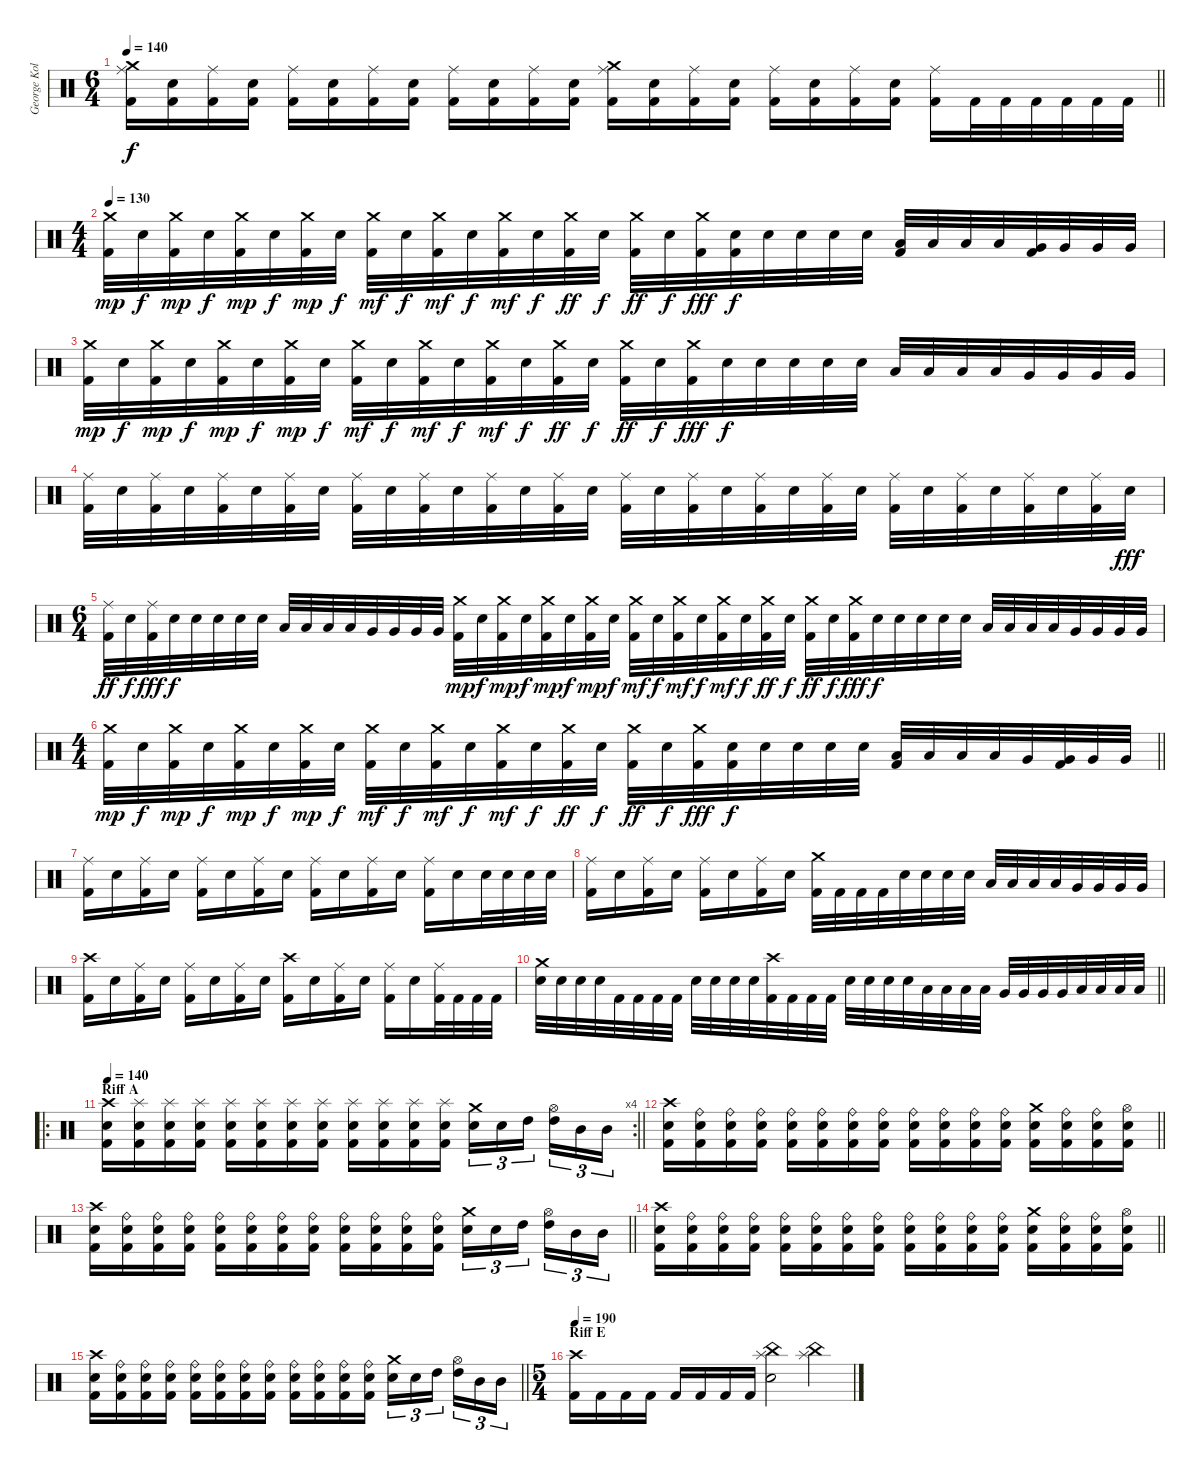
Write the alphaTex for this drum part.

\track ("George Kollias" "George Kol") {instrument percussion}
\staff {score}
\articulation defaults
\ts (6 4)
\tempo 140
\clef neutral
\barLineRight lightlight
\ks c
("Crash medium (hit)" "Ride (middle)" "Kick (hit) 2").16{dy f} ("Electric Snare (hit)" "Kick (hit) 2").16 ("Ride (middle)" "Kick (hit) 2").16 ("Electric Snare (hit)" "Kick (hit) 2").16 ("Ride (middle)" "Kick (hit) 2").16 ("Electric Snare (hit)" "Kick (hit) 2").16 ("Ride (middle)" "Kick (hit) 2").16 ("Electric Snare (hit)" "Kick (hit) 2").16 ("Ride (middle)" "Kick (hit) 2").16 ("Electric Snare (hit)" "Kick (hit) 2").16 ("Ride (middle)" "Kick (hit) 2").16 ("Electric Snare (hit)" "Kick (hit) 2").16 ("Crash medium (hit)" "Ride (middle)" "Kick (hit) 2").16 ("Electric Snare (hit)" "Kick (hit) 2").16 ("Ride (middle)" "Kick (hit) 2").16 ("Electric Snare (hit)" "Kick (hit) 2").16 ("Ride (middle)" "Kick (hit) 2").16 ("Electric Snare (hit)" "Kick (hit) 2").16 ("Ride (middle)" "Kick (hit) 2").16 ("Electric Snare (hit)" "Kick (hit) 2").16 ("Ride (middle)" "Kick (hit) 2").16 "Kick (hit) 2".32 "Kick (hit) 2".32 "Kick (hit) 2".32 "Kick (hit) 2".32 "Kick (hit) 2".32 "Kick (hit) 2".32 |
\ts (4 4)
\tempo 130
("Crash medium (hit)" "Kick (hit) 2").32{dy mp} "Electric Snare (hit)".32{dy f} ("Crash medium (hit)" "Kick (hit) 2").32{dy mp} "Electric Snare (hit)".32{dy f} ("Crash medium (hit)" "Kick (hit) 2").32{dy mp} "Electric Snare (hit)".32{dy f} ("Crash medium (hit)" "Kick (hit) 2").32{dy mp} "Electric Snare (hit)".32{dy f} ("Crash medium (hit)" "Kick (hit) 2").32{dy mf} "Electric Snare (hit)".32{dy f} ("Crash medium (hit)" "Kick (hit) 2").32{dy mf} "Electric Snare (hit)".32{dy f} ("Crash medium (hit)" "Kick (hit) 2").32{dy mf} "Electric Snare (hit)".32{dy f} ("Crash medium (hit)" "Kick (hit) 2").32{dy ff} "Electric Snare (hit)".32{dy f} ("Crash medium (hit)" "Kick (hit) 2").32{dy ff} "Electric Snare (hit)".32{dy f} ("Crash medium (hit)" "Kick (hit) 2").32{dy fff} ("Electric Snare (hit)" "Kick (hit) 2").32{dy f} "Electric Snare (hit)".32 "Electric Snare (hit)".32 "Electric Snare (hit)".32 "Electric Snare (hit)".32 ("Low Tom (hit)" "Kick (hit) 2").32 "Low Tom (hit)".32 "Low Tom (hit)".32 "Low Tom (hit)".32 ("Very Low Tom (hit)" "Kick (hit) 2").32 "Very Low Tom (hit)".32 "Very Low Tom (hit)".32 "Very Low Tom (hit)".32 |
("Crash medium (hit)" "Kick (hit) 2").32{dy mp} "Electric Snare (hit)".32{dy f} ("Crash medium (hit)" "Kick (hit) 2").32{dy mp} "Electric Snare (hit)".32{dy f} ("Crash medium (hit)" "Kick (hit) 2").32{dy mp} "Electric Snare (hit)".32{dy f} ("Crash medium (hit)" "Kick (hit) 2").32{dy mp} "Electric Snare (hit)".32{dy f} ("Crash medium (hit)" "Kick (hit) 2").32{dy mf} "Electric Snare (hit)".32{dy f} ("Crash medium (hit)" "Kick (hit) 2").32{dy mf} "Electric Snare (hit)".32{dy f} ("Crash medium (hit)" "Kick (hit) 2").32{dy mf} "Electric Snare (hit)".32{dy f} ("Crash medium (hit)" "Kick (hit) 2").32{dy ff} "Electric Snare (hit)".32{dy f} ("Crash medium (hit)" "Kick (hit) 2").32{dy ff} "Electric Snare (hit)".32{dy f} ("Crash medium (hit)" "Kick (hit) 2").32{dy fff} "Electric Snare (hit)".32{dy f} "Electric Snare (hit)".32 "Electric Snare (hit)".32 "Electric Snare (hit)".32 "Electric Snare (hit)".32 "Low Tom (hit)".32 "Low Tom (hit)".32 "Low Tom (hit)".32 "Low Tom (hit)".32 "Very Low Tom (hit)".32 "Very Low Tom (hit)".32 "Very Low Tom (hit)".32 "Very Low Tom (hit)".32 |
("Ride (middle)" "Kick (hit) 2").32 "Electric Snare (hit)".32 ("Ride (middle)" "Kick (hit) 2").32 "Electric Snare (hit)".32 ("Ride (middle)" "Kick (hit) 2").32 "Electric Snare (hit)".32 ("Ride (middle)" "Kick (hit) 2").32 "Electric Snare (hit)".32 ("Ride (middle)" "Kick (hit) 2").32 "Electric Snare (hit)".32 ("Ride (middle)" "Kick (hit) 2").32 "Electric Snare (hit)".32 ("Ride (middle)" "Kick (hit) 2").32 "Electric Snare (hit)".32 ("Ride (middle)" "Kick (hit) 2").32 "Electric Snare (hit)".32 ("Ride (middle)" "Kick (hit) 2").32 "Electric Snare (hit)".32 ("Ride (middle)" "Kick (hit) 2").32 "Electric Snare (hit)".32 ("Ride (middle)" "Kick (hit) 2").32 "Electric Snare (hit)".32 ("Ride (middle)" "Kick (hit) 2").32 "Electric Snare (hit)".32 ("Ride (middle)" "Kick (hit) 2").32 "Electric Snare (hit)".32 ("Ride (middle)" "Kick (hit) 2").32 "Electric Snare (hit)".32 ("Ride (middle)" "Kick (hit) 2").32 "Electric Snare (hit)".32 ("Ride (middle)" "Kick (hit) 2").32 "Electric Snare (hit)".32{dy fff} |
\ts (6 4)
("Ride (middle)" "Kick (hit) 2").32{dy ff} "Electric Snare (hit)".32{dy f} ("Ride (middle)" "Kick (hit) 2").32{dy fff} "Electric Snare (hit)".32{dy f} "Electric Snare (hit)".32 "Electric Snare (hit)".32 "Electric Snare (hit)".32 "Electric Snare (hit)".32 "Low Tom (hit)".32 "Low Tom (hit)".32 "Low Tom (hit)".32 "Low Tom (hit)".32 "Very Low Tom (hit)".32 "Very Low Tom (hit)".32 "Very Low Tom (hit)".32 "Very Low Tom (hit)".32 ("Crash medium (hit)" "Kick (hit) 2").32{dy mp} "Electric Snare (hit)".32{dy f} ("Crash medium (hit)" "Kick (hit) 2").32{dy mp} "Electric Snare (hit)".32{dy f} ("Crash medium (hit)" "Kick (hit) 2").32{dy mp} "Electric Snare (hit)".32{dy f} ("Crash medium (hit)" "Kick (hit) 2").32{dy mp} "Electric Snare (hit)".32{dy f} ("Crash medium (hit)" "Kick (hit) 2").32{dy mf} "Electric Snare (hit)".32{dy f} ("Crash medium (hit)" "Kick (hit) 2").32{dy mf} "Electric Snare (hit)".32{dy f} ("Crash medium (hit)" "Kick (hit) 2").32{dy mf} "Electric Snare (hit)".32{dy f} ("Crash medium (hit)" "Kick (hit) 2").32{dy ff} "Electric Snare (hit)".32{dy f} ("Crash medium (hit)" "Kick (hit) 2").32{dy ff} "Electric Snare (hit)".32{dy f} ("Crash medium (hit)" "Kick (hit) 2").32{dy fff} "Electric Snare (hit)".32{dy f} "Electric Snare (hit)".32 "Electric Snare (hit)".32 "Electric Snare (hit)".32 "Electric Snare (hit)".32 "Low Tom (hit)".32 "Low Tom (hit)".32 "Low Tom (hit)".32 "Low Tom (hit)".32 "Very Low Tom (hit)".32 "Very Low Tom (hit)".32 "Very Low Tom (hit)".32 "Very Low Tom (hit)".32 |
\ts (4 4)
\barLineRight lightlight
("Crash medium (hit)" "Kick (hit) 2").32{dy mp} "Electric Snare (hit)".32{dy f} ("Crash medium (hit)" "Kick (hit) 2").32{dy mp} "Electric Snare (hit)".32{dy f} ("Crash medium (hit)" "Kick (hit) 2").32{dy mp} "Electric Snare (hit)".32{dy f} ("Crash medium (hit)" "Kick (hit) 2").32{dy mp} "Electric Snare (hit)".32{dy f} ("Crash medium (hit)" "Kick (hit) 2").32{dy mf} "Electric Snare (hit)".32{dy f} ("Crash medium (hit)" "Kick (hit) 2").32{dy mf} "Electric Snare (hit)".32{dy f} ("Crash medium (hit)" "Kick (hit) 2").32{dy mf} "Electric Snare (hit)".32{dy f} ("Crash medium (hit)" "Kick (hit) 2").32{dy ff} "Electric Snare (hit)".32{dy f} ("Crash medium (hit)" "Kick (hit) 2").32{dy ff} "Electric Snare (hit)".32{dy f} ("Crash medium (hit)" "Kick (hit) 2").32{dy fff} ("Electric Snare (hit)" "Kick (hit) 2").32{dy f} "Electric Snare (hit)".32 "Electric Snare (hit)".32 "Electric Snare (hit)".32 "Electric Snare (hit)".32 ("Low Tom (hit)" "Kick (hit) 2").32 "Low Tom (hit)".32 "Low Tom (hit)".32 "Low Tom (hit)".32 "Very Low Tom (hit)".32 ("Very Low Tom (hit)" "Kick (hit) 2").32 "Very Low Tom (hit)".32 "Very Low Tom (hit)".32 |
("Ride (middle)" "Kick (hit) 2").16 "Electric Snare (hit)".16 ("Ride (middle)" "Kick (hit) 2").16 "Electric Snare (hit)".16 ("Ride (middle)" "Kick (hit) 2").16 "Electric Snare (hit)".16 ("Ride (middle)" "Kick (hit) 2").16 "Electric Snare (hit)".16 ("Ride (middle)" "Kick (hit) 2").16 "Electric Snare (hit)".16 ("Ride (middle)" "Kick (hit) 2").16 "Electric Snare (hit)".16 ("Ride (middle)" "Kick (hit) 2").16 "Electric Snare (hit)".16 "Electric Snare (hit)".32 "Electric Snare (hit)".32 "Electric Snare (hit)".32 "Electric Snare (hit)".32 |
("Ride (middle)" "Kick (hit) 2").16 "Electric Snare (hit)".16 ("Ride (middle)" "Kick (hit) 2").16 "Electric Snare (hit)".16 ("Ride (middle)" "Kick (hit) 2").16 "Electric Snare (hit)".16 ("Ride (middle)" "Kick (hit) 2").16 "Electric Snare (hit)".16 ("Crash medium (hit)" "Kick (hit) 2").32 "Kick (hit) 2".32 "Kick (hit) 2".32 "Kick (hit) 2".32 "Electric Snare (hit)".32 "Electric Snare (hit)".32 "Electric Snare (hit)".32 "Electric Snare (hit)".32 "Low Tom (hit)".32 "Low Tom (hit)".32 "Low Tom (hit)".32 "Low Tom (hit)".32 "Very Low Tom (hit)".32 "Very Low Tom (hit)".32 "Very Low Tom (hit)".32 "Very Low Tom (hit)".32 |
("Crash high (hit)" "Kick (hit) 2").16 "Electric Snare (hit)".16 ("Ride (middle)" "Kick (hit) 2").16 "Electric Snare (hit)".16 ("Ride (middle)" "Kick (hit) 2").16 "Electric Snare (hit)".16 ("Ride (middle)" "Kick (hit) 2").16 "Electric Snare (hit)".16 ("Crash high (hit)" "Kick (hit) 2").16 "Electric Snare (hit)".16 ("Ride (middle)" "Kick (hit) 2").16 "Electric Snare (hit)".16 ("Ride (middle)" "Kick (hit) 2").16 "Electric Snare (hit)".16 ("Ride (middle)" "Kick (hit) 2").32 "Kick (hit) 2".32 "Kick (hit) 2".32 "Kick (hit) 2".32 |
\barLineRight lightlight
("Crash medium (hit)" "Electric Snare (hit)").32 "Electric Snare (hit)".32 "Electric Snare (hit)".32 "Electric Snare (hit)".32 "Kick (hit) 2".32 "Kick (hit) 2".32 "Kick (hit) 2".32 "Kick (hit) 2".32 "Electric Snare (hit)".32 "Electric Snare (hit)".32 "Electric Snare (hit)".32 "Electric Snare (hit)".32 ("Crash high (hit)" "Kick (hit) 2").32 "Kick (hit) 2".32 "Kick (hit) 2".32 "Kick (hit) 2".32 "Electric Snare (hit)".32 "Electric Snare (hit)".32 "Electric Snare (hit)".32 "Electric Snare (hit)".32 "Low Tom (hit)".32 "Low Tom (hit)".32 "Low Tom (hit)".32 "Low Tom (hit)".32 "Very Low Tom (hit)".32 "Very Low Tom (hit)".32 "Very Low Tom (hit)".32 "Very Low Tom (hit)".32 "Low Floor Tom (hit)".32 "Low Floor Tom (hit)".32 "Low Floor Tom (hit)".32 "Low Floor Tom (hit)".32 |
\ro
\rc 4
\section ("" "Riff A")
\tempo 140
\barLineRight lightlight
("Crash high (hit)" "Electric Snare (hit)" "Kick (hit) 2").16 ("Splash (hit)" "Electric Snare (hit)" "Kick (hit) 2").16 ("Splash (hit)" "Electric Snare (hit)" "Kick (hit) 2").16 ("Splash (hit)" "Electric Snare (hit)" "Kick (hit) 2").16 ("Splash (hit)" "Electric Snare (hit)" "Kick (hit) 2").16 ("Splash (hit)" "Electric Snare (hit)" "Kick (hit) 2").16 ("Splash (hit)" "Electric Snare (hit)" "Kick (hit) 2").16 ("Splash (hit)" "Electric Snare (hit)" "Kick (hit) 2").16 ("Splash (hit)" "Electric Snare (hit)" "Kick (hit) 2").16 ("Splash (hit)" "Electric Snare (hit)" "Kick (hit) 2").16 ("Splash (hit)" "Electric Snare (hit)" "Kick (hit) 2").16 ("Splash (hit)" "Electric Snare (hit)" "Kick (hit) 2").16 ("Crash medium (hit)" "Electric Snare (hit)").16{tu (3 2)} "Electric Snare (hit)".16{tu (3 2)} "High Tom (hit)".16{tu (3 2) beam splitsecondary} ("Hi-Hat (open)" "High Tom (hit)").16{tu (3 2)} "Mid Tom (hit)".16{tu (3 2)} "Mid Tom (hit)".16{tu (3 2)} |
\barLineRight lightlight
("Crash high (hit)" "Electric Snare (hit)" "Kick (hit) 2").16 ("Ride (bell)" "Electric Snare (hit)" "Kick (hit) 2").16 ("Ride (bell)" "Electric Snare (hit)" "Kick (hit) 2").16 ("Ride (bell)" "Electric Snare (hit)" "Kick (hit) 2").16 ("Ride (bell)" "Electric Snare (hit)" "Kick (hit) 2").16 ("Ride (bell)" "Electric Snare (hit)" "Kick (hit) 2").16 ("Ride (bell)" "Electric Snare (hit)" "Kick (hit) 2").16 ("Ride (bell)" "Electric Snare (hit)" "Kick (hit) 2").16 ("Ride (bell)" "Electric Snare (hit)" "Kick (hit) 2").16 ("Ride (bell)" "Electric Snare (hit)" "Kick (hit) 2").16 ("Ride (bell)" "Electric Snare (hit)" "Kick (hit) 2").16 ("Ride (bell)" "Electric Snare (hit)" "Kick (hit) 2").16 ("Crash medium (hit)" "Electric Snare (hit)" "Kick (hit) 2").16 ("Ride (bell)" "Electric Snare (hit)" "Kick (hit) 2").16 ("Ride (bell)" "Electric Snare (hit)" "Kick (hit) 2").16 ("Hi-Hat (open)" "Electric Snare (hit)" "Kick (hit) 2").16 |
\barLineRight lightlight
("Crash high (hit)" "Electric Snare (hit)" "Kick (hit) 2").16 ("Ride (bell)" "Electric Snare (hit)" "Kick (hit) 2").16 ("Ride (bell)" "Electric Snare (hit)" "Kick (hit) 2").16 ("Ride (bell)" "Electric Snare (hit)" "Kick (hit) 2").16 ("Ride (bell)" "Electric Snare (hit)" "Kick (hit) 2").16 ("Ride (bell)" "Electric Snare (hit)" "Kick (hit) 2").16 ("Ride (bell)" "Electric Snare (hit)" "Kick (hit) 2").16 ("Ride (bell)" "Electric Snare (hit)" "Kick (hit) 2").16 ("Ride (bell)" "Electric Snare (hit)" "Kick (hit) 2").16 ("Ride (bell)" "Electric Snare (hit)" "Kick (hit) 2").16 ("Ride (bell)" "Electric Snare (hit)" "Kick (hit) 2").16 ("Ride (bell)" "Electric Snare (hit)" "Kick (hit) 2").16 ("Crash medium (hit)" "Electric Snare (hit)").16{tu (3 2)} "Electric Snare (hit)".16{tu (3 2)} "High Tom (hit)".16{tu (3 2) beam splitsecondary} ("Hi-Hat (open)" "High Tom (hit)").16{tu (3 2)} "Mid Tom (hit)".16{tu (3 2)} "Mid Tom (hit)".16{tu (3 2)} |
\barLineRight lightlight
("Crash high (hit)" "Electric Snare (hit)" "Kick (hit) 2").16 ("Ride (bell)" "Electric Snare (hit)" "Kick (hit) 2").16 ("Ride (bell)" "Electric Snare (hit)" "Kick (hit) 2").16 ("Ride (bell)" "Electric Snare (hit)" "Kick (hit) 2").16 ("Ride (bell)" "Electric Snare (hit)" "Kick (hit) 2").16 ("Ride (bell)" "Electric Snare (hit)" "Kick (hit) 2").16 ("Ride (bell)" "Electric Snare (hit)" "Kick (hit) 2").16 ("Ride (bell)" "Electric Snare (hit)" "Kick (hit) 2").16 ("Ride (bell)" "Electric Snare (hit)" "Kick (hit) 2").16 ("Ride (bell)" "Electric Snare (hit)" "Kick (hit) 2").16 ("Ride (bell)" "Electric Snare (hit)" "Kick (hit) 2").16 ("Ride (bell)" "Electric Snare (hit)" "Kick (hit) 2").16 ("Crash medium (hit)" "Electric Snare (hit)" "Kick (hit) 2").16 ("Ride (bell)" "Electric Snare (hit)" "Kick (hit) 2").16 ("Ride (bell)" "Electric Snare (hit)" "Kick (hit) 2").16 ("Hi-Hat (open)" "Electric Snare (hit)" "Kick (hit) 2").16 |
\barLineRight lightlight
("Crash high (hit)" "Electric Snare (hit)" "Kick (hit) 2").16 ("Ride (bell)" "Electric Snare (hit)" "Kick (hit) 2").16 ("Ride (bell)" "Electric Snare (hit)" "Kick (hit) 2").16 ("Ride (bell)" "Electric Snare (hit)" "Kick (hit) 2").16 ("Ride (bell)" "Electric Snare (hit)" "Kick (hit) 2").16 ("Ride (bell)" "Electric Snare (hit)" "Kick (hit) 2").16 ("Ride (bell)" "Electric Snare (hit)" "Kick (hit) 2").16 ("Ride (bell)" "Electric Snare (hit)" "Kick (hit) 2").16 ("Ride (bell)" "Electric Snare (hit)" "Kick (hit) 2").16 ("Ride (bell)" "Electric Snare (hit)" "Kick (hit) 2").16 ("Ride (bell)" "Electric Snare (hit)" "Kick (hit) 2").16 ("Ride (bell)" "Electric Snare (hit)" "Kick (hit) 2").16 ("Crash medium (hit)" "Electric Snare (hit)").16{tu (3 2)} "Electric Snare (hit)".16{tu (3 2)} "High Tom (hit)".16{tu (3 2) beam splitsecondary} ("Hi-Hat (open)" "High Tom (hit)").16{tu (3 2)} "Mid Tom (hit)".16{tu (3 2)} "Mid Tom (hit)".16{tu (3 2)} |
\ts (5 4)
\section ("" "Riff E")
\tempo 190
("Crash high (hit)" "Kick (hit) 2").16 "Kick (hit) 2".16 "Kick (hit) 2".16 "Kick (hit) 2".16 "Kick (hit) 2".16 "Kick (hit) 2".16 "Kick (hit) 2".16 "Kick (hit) 2".16 ("China (hit)" "Splash (hit)" "Electric Snare (hit)").2 ("China (hit)" "Splash (hit)").4
